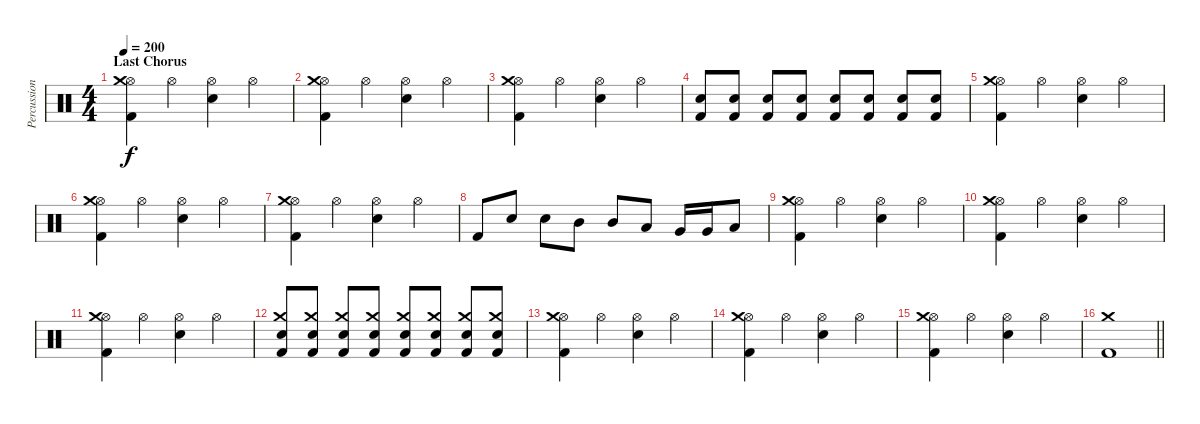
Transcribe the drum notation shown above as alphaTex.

\track ("Percussion" "Percussion") {instrument percussion}
\staff {score}
\articulation defaults
\ts (4 4)
\section ("" "Last Chorus")
\tempo 200
\clef neutral
\ks c
("Kick (hit) 2" "Hi-Hat (open)" "Crash medium (hit)").4{dy f} "Hi-Hat (open)".4 ("Electric Snare (hit)" "Hi-Hat (open)").4 "Hi-Hat (open)".4 |
("Kick (hit) 2" "Hi-Hat (open)" "Crash medium (hit)").4 "Hi-Hat (open)".4 ("Electric Snare (hit)" "Hi-Hat (open)").4 "Hi-Hat (open)".4 |
("Kick (hit) 2" "Hi-Hat (open)" "Crash medium (hit)").4 "Hi-Hat (open)".4 ("Electric Snare (hit)" "Hi-Hat (open)").4 "Hi-Hat (open)".4 |
("Kick (hit) 2" "Electric Snare (hit)").8 ("Kick (hit) 2" "Electric Snare (hit)").8 ("Kick (hit) 2" "Electric Snare (hit)").8 ("Kick (hit) 2" "Electric Snare (hit)").8 ("Kick (hit) 2" "Electric Snare (hit)").8 ("Kick (hit) 2" "Electric Snare (hit)").8 ("Kick (hit) 2" "Electric Snare (hit)").8 ("Kick (hit) 2" "Electric Snare (hit)").8 |
("Kick (hit) 2" "Hi-Hat (open)" "Crash medium (hit)").4 "Hi-Hat (open)".4 ("Electric Snare (hit)" "Hi-Hat (open)").4 "Hi-Hat (open)".4 |
("Kick (hit) 2" "Hi-Hat (open)" "Crash medium (hit)").4 "Hi-Hat (open)".4 ("Electric Snare (hit)" "Hi-Hat (open)").4 "Hi-Hat (open)".4 |
("Kick (hit) 2" "Hi-Hat (open)" "Crash medium (hit)").4 "Hi-Hat (open)".4 ("Electric Snare (hit)" "Hi-Hat (open)").4 "Hi-Hat (open)".4 |
"Kick (hit) 2".8 "Electric Snare (hit)".8 "Electric Snare (hit)".8 "Mid Tom (hit)".8 "Mid Tom (hit)".8 "Low Tom (hit)".8 "Very Low Tom (hit)".16 "Very Low Tom (hit)".16 "Low Floor Tom (hit)".8 |
("Kick (hit) 2" "Hi-Hat (open)" "Crash medium (hit)").4 "Hi-Hat (open)".4 ("Electric Snare (hit)" "Hi-Hat (open)").4 "Hi-Hat (open)".4 |
("Kick (hit) 2" "Hi-Hat (open)" "Crash medium (hit)").4 "Hi-Hat (open)".4 ("Electric Snare (hit)" "Hi-Hat (open)").4 "Hi-Hat (open)".4 |
("Kick (hit) 2" "Hi-Hat (open)" "Crash medium (hit)").4 "Hi-Hat (open)".4 ("Electric Snare (hit)" "Hi-Hat (open)").4 "Hi-Hat (open)".4 |
("Kick (hit) 2" "Electric Snare (hit)" "Crash medium (hit)").8 ("Kick (hit) 2" "Electric Snare (hit)" "Crash medium (hit)").8 ("Kick (hit) 2" "Electric Snare (hit)" "Crash medium (hit)").8 ("Kick (hit) 2" "Electric Snare (hit)" "Crash medium (hit)").8 ("Kick (hit) 2" "Electric Snare (hit)" "Crash medium (hit)").8 ("Kick (hit) 2" "Electric Snare (hit)" "Crash medium (hit)").8 ("Kick (hit) 2" "Electric Snare (hit)" "Crash medium (hit)").8 ("Kick (hit) 2" "Electric Snare (hit)" "Crash medium (hit)").8 |
("Kick (hit) 2" "Hi-Hat (open)" "Crash medium (hit)").4 "Hi-Hat (open)".4 ("Electric Snare (hit)" "Hi-Hat (open)").4 "Hi-Hat (open)".4 |
("Kick (hit) 2" "Hi-Hat (open)" "Crash medium (hit)").4 "Hi-Hat (open)".4 ("Electric Snare (hit)" "Hi-Hat (open)").4 "Hi-Hat (open)".4 |
("Kick (hit) 2" "Hi-Hat (open)" "Crash medium (hit)").4 "Hi-Hat (open)".4 ("Electric Snare (hit)" "Hi-Hat (open)").4 "Hi-Hat (open)".4 |
\barLineRight lightlight
("Crash medium (hit)" "Kick (hit) 2").1
